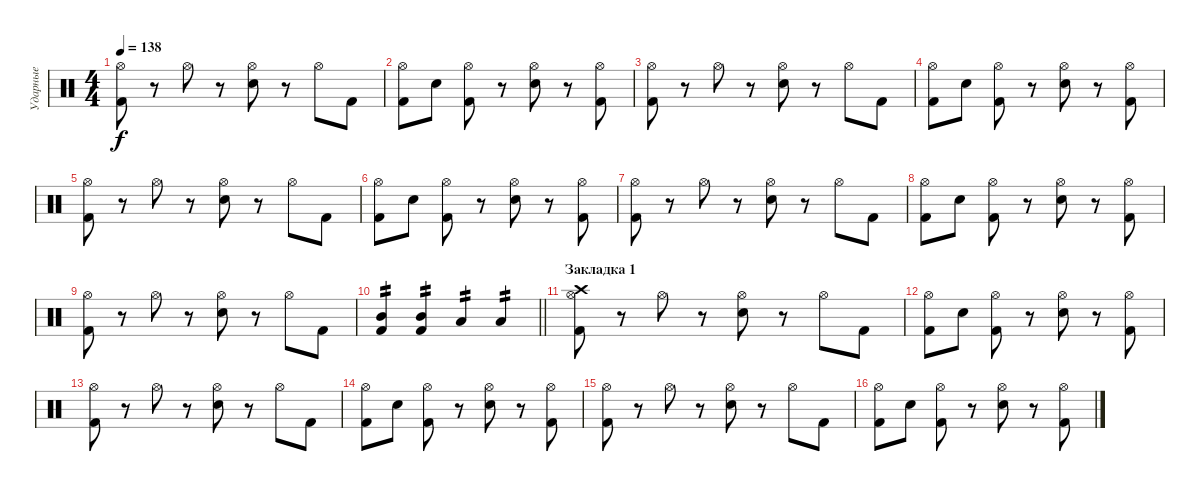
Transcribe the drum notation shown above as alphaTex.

\track ("Ударные" "Ударные") {instrument percussion}
\staff {score}
\articulation defaults
\ts (4 4)
\tempo 138
\clef neutral
\ks c
("Hi-Hat (open)" "Kick (hit) 2").8{dy f} r.8 "Hi-Hat (open)".8 r.8 ("Hi-Hat (open)" "Snare (hit) 2").8 r.8 "Hi-Hat (open)".8 "Kick (hit) 2".8 |
("Hi-Hat (open)" "Kick (hit) 2").8 "Snare (hit) 2".8 ("Hi-Hat (open)" "Kick (hit) 2").8 r.8 ("Hi-Hat (open)" "Snare (hit) 2").8 r.8 ("Hi-Hat (open)" "Kick (hit) 2").8 |
("Hi-Hat (open)" "Kick (hit) 2").8 r.8 "Hi-Hat (open)".8 r.8 ("Hi-Hat (open)" "Snare (hit) 2").8 r.8 "Hi-Hat (open)".8 "Kick (hit) 2".8 |
("Hi-Hat (open)" "Kick (hit) 2").8 "Snare (hit) 2".8 ("Hi-Hat (open)" "Kick (hit) 2").8 r.8 ("Hi-Hat (open)" "Snare (hit) 2").8 r.8 ("Hi-Hat (open)" "Kick (hit) 2").8 |
("Hi-Hat (open)" "Kick (hit) 2").8 r.8 "Hi-Hat (open)".8 r.8 ("Hi-Hat (open)" "Snare (hit) 2").8 r.8 "Hi-Hat (open)".8 "Kick (hit) 2".8 |
("Hi-Hat (open)" "Kick (hit) 2").8 "Snare (hit) 2".8 ("Hi-Hat (open)" "Kick (hit) 2").8 r.8 ("Hi-Hat (open)" "Snare (hit) 2").8 r.8 ("Hi-Hat (open)" "Kick (hit) 2").8 |
("Hi-Hat (open)" "Kick (hit) 2").8 r.8 "Hi-Hat (open)".8 r.8 ("Hi-Hat (open)" "Snare (hit) 2").8 r.8 "Hi-Hat (open)".8 "Kick (hit) 2".8 |
("Hi-Hat (open)" "Kick (hit) 2").8 "Snare (hit) 2".8 ("Hi-Hat (open)" "Kick (hit) 2").8 r.8 ("Hi-Hat (open)" "Snare (hit) 2").8 r.8 ("Hi-Hat (open)" "Kick (hit) 2").8 |
("Hi-Hat (open)" "Kick (hit) 2").8 r.8 "Hi-Hat (open)".8 r.8 ("Hi-Hat (open)" "Snare (hit) 2").8 r.8 "Hi-Hat (open)".8 "Kick (hit) 2".8 |
\barLineRight lightlight
("Mid Tom (hit)" "Kick (hit) 2").4{tp 2} ("Mid Tom (hit)" "Kick (hit) 2").4{tp 2} "Low Tom (hit)".4{tp 2} "Low Tom (hit)".4{tp 2} |
\section ("" "Закладка 1")
("Hi-Hat (open)" "Kick (hit) 2" "Crash high (hit)").8 r.8 "Hi-Hat (open)".8 r.8 ("Hi-Hat (open)" "Snare (hit) 2").8 r.8 "Hi-Hat (open)".8 "Kick (hit) 2".8 |
("Hi-Hat (open)" "Kick (hit) 2").8 "Snare (hit) 2".8 ("Hi-Hat (open)" "Kick (hit) 2").8 r.8 ("Hi-Hat (open)" "Snare (hit) 2").8 r.8 ("Hi-Hat (open)" "Kick (hit) 2").8 |
("Hi-Hat (open)" "Kick (hit) 2").8 r.8 "Hi-Hat (open)".8 r.8 ("Hi-Hat (open)" "Snare (hit) 2").8 r.8 "Hi-Hat (open)".8 "Kick (hit) 2".8 |
("Hi-Hat (open)" "Kick (hit) 2").8 "Snare (hit) 2".8 ("Hi-Hat (open)" "Kick (hit) 2").8 r.8 ("Hi-Hat (open)" "Snare (hit) 2").8 r.8 ("Hi-Hat (open)" "Kick (hit) 2").8 |
("Hi-Hat (open)" "Kick (hit) 2").8 r.8 "Hi-Hat (open)".8 r.8 ("Hi-Hat (open)" "Snare (hit) 2").8 r.8 "Hi-Hat (open)".8 "Kick (hit) 2".8 |
("Hi-Hat (open)" "Kick (hit) 2").8 "Snare (hit) 2".8 ("Hi-Hat (open)" "Kick (hit) 2").8 r.8 ("Hi-Hat (open)" "Snare (hit) 2").8 r.8 ("Hi-Hat (open)" "Kick (hit) 2").8
